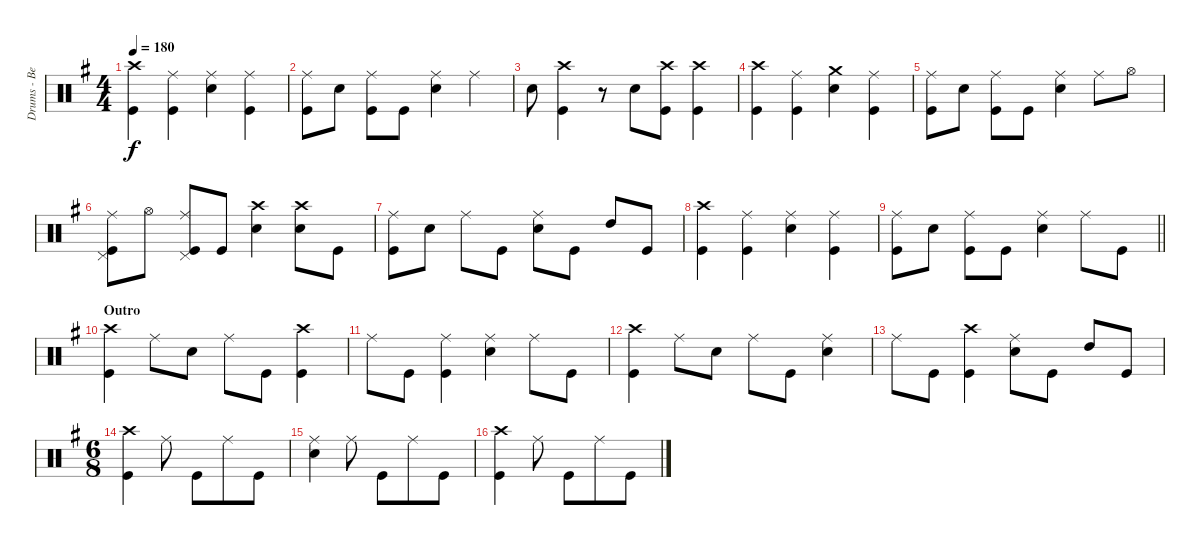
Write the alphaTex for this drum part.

\track ("Drums - Ben Johnston" "Drums - Be") {instrument percussion}
\staff {score}
\articulation defaults
\ts (4 4)
\tempo 180
\clef neutral
\ks eminor
("Crash high (hit)" "Kick (hit)").4{dy f} ("Ride (middle)" "Kick (hit)").4 ("Ride (middle)" "Snare (hit) 2").4 ("Ride (middle)" "Kick (hit)").4 |
("Ride (middle)" "Kick (hit)").8 "Snare (hit) 2".8 ("Ride (middle)" "Kick (hit)").8 "Kick (hit)".8 ("Ride (middle)" "Snare (hit) 2").4 "Ride (middle)".4 |
"Snare (hit) 2".8 ("Crash high (hit)" "Kick (hit)").4 r.8 "Snare (hit) 2".8 ("Crash high (hit)" "Kick (hit)").8 ("Crash high (hit)" "Kick (hit)").4 |
("Crash high (hit)" "Kick (hit)").4 ("Ride (middle)" "Kick (hit)").4 ("Crash medium (hit)" "Snare (hit) 2").4 ("Ride (middle)" "Kick (hit)").4 |
("Ride (middle)" "Kick (hit)").8 "Snare (hit) 2".8 ("Ride (middle)" "Kick (hit)").8 "Kick (hit)".8 ("Ride (middle)" "Snare (hit) 2").4 "Ride (middle)".8 "Hi-Hat (open)".8 |
("Ride (middle)" "Pedal Hi-Hat (hit)" "Kick (hit)").8 "Hi-Hat (open)".8 ("Ride (middle)" "Pedal Hi-Hat (hit)" "Kick (hit)").8 "Kick (hit)".8 ("Crash high (hit)" "Snare (hit) 2").4 ("Crash high (hit)" "Snare (hit) 2").8 "Kick (hit)".8 |
("Ride (middle)" "Kick (hit)").8 "Snare (hit) 2".8 "Ride (middle)".8 "Kick (hit)".8 ("Ride (middle)" "Snare (hit) 2").8 "Kick (hit)".8 "High Tom (hit)".8 "Kick (hit)".8 |
("Crash high (hit)" "Kick (hit)").4 ("Ride (middle)" "Kick (hit)").4 ("Ride (middle)" "Snare (hit) 2").4 ("Ride (middle)" "Kick (hit)").4 |
\barLineRight lightlight
("Ride (middle)" "Kick (hit)").8 "Snare (hit) 2".8 ("Ride (middle)" "Kick (hit)").8 "Kick (hit)".8 ("Ride (middle)" "Snare (hit) 2").4 "Ride (middle)".8 "Kick (hit)".8 |
\section ("" "Outro")
("Crash high (hit)" "Kick (hit)").4 "Ride (middle)".8 "Snare (hit) 2".8 "Ride (middle)".8 "Kick (hit)".8 ("Crash high (hit)" "Kick (hit)").4 |
"Ride (middle)".8 "Kick (hit)".8 ("Ride (middle)" "Kick (hit)").4 ("Ride (middle)" "Snare (hit) 2").4 "Ride (middle)".8 "Kick (hit)".8 |
("Crash high (hit)" "Kick (hit)").4 "Ride (middle)".8 "Snare (hit) 2".8 "Ride (middle)".8 "Kick (hit)".8 ("Ride (middle)" "Snare (hit) 2").4 |
"Ride (middle)".8 "Kick (hit)".8 ("Crash high (hit)" "Kick (hit)").4 ("Ride (middle)" "Snare (hit) 2").8 "Kick (hit)".8 "High Tom (hit)".8 "Kick (hit)".8 |
\ts (6 8)
("Crash high (hit)" "Kick (hit)").4 "Ride (middle)".8 "Kick (hit)".8 "Ride (middle)".8 "Kick (hit)".8 |
("Ride (middle)" "Snare (hit) 2").4 "Ride (middle)".8 "Kick (hit)".8 "Ride (middle)".8 "Kick (hit)".8 |
("Crash high (hit)" "Kick (hit)").4 "Ride (middle)".8 "Kick (hit)".8 "Ride (middle)".8 "Kick (hit)".8
